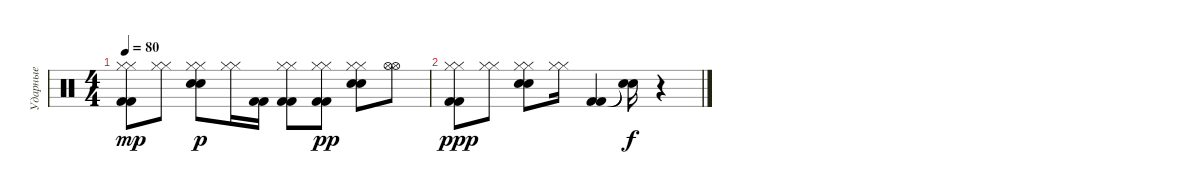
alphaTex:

\track ("Ударные" "Ударные") {instrument percussion}
\staff {score}
\articulation defaults
\ts (4 4)
\tempo 80
\clef neutral
\ks c
("Kick (hit) 2" "Hi-Hat (closed)" "Kick (hit) 2" "Hi-Hat (closed)").8{dy mp} ("Hi-Hat (closed)" "Hi-Hat (closed)").8 ("Snare (hit) 2" "Hi-Hat (closed)" "Snare (hit) 2" "Hi-Hat (closed)").8{dy p} ("Hi-Hat (closed)" "Hi-Hat (closed)").16 ("Kick (hit) 2" "Kick (hit) 2").16 ("Kick (hit) 2" "Hi-Hat (closed)" "Kick (hit) 2" "Hi-Hat (closed)").8 ("Kick (hit) 2" "Hi-Hat (closed)" "Kick (hit) 2" "Hi-Hat (closed)").8{dy pp} ("Snare (hit) 2" "Hi-Hat (closed)" "Snare (hit) 2" "Hi-Hat (closed)").8 ("Hi-Hat (open)" "Hi-Hat (open)").8 |
("Kick (hit) 2" "Hi-Hat (closed)" "Kick (hit) 2" "Hi-Hat (closed)").8{dy ppp} ("Hi-Hat (closed)" "Hi-Hat (closed)").8 ("Snare (hit) 2" "Hi-Hat (closed)" "Snare (hit) 2" "Hi-Hat (closed)").8 ("Hi-Hat (closed)" "Hi-Hat (closed)").16 ("Kick (hit) 2" "Kick (hit) 2").4 ("Snare (hit)"{t} "Snare (hit)"{t}).16{dy f} r.4
